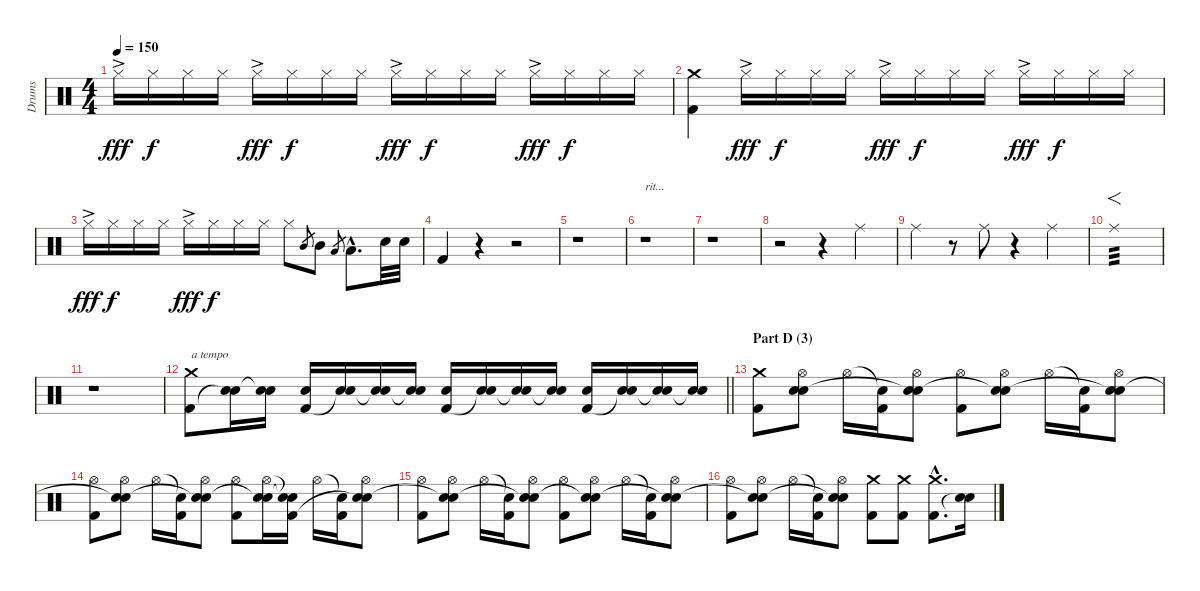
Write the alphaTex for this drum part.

\track ("Drums" "Drums") {instrument percussion}
\staff {score}
\articulation defaults
\ts (4 4)
\tempo 150
\clef neutral
\ks c "Hi-Hat (closed)"{ac}.16{dy fff} "Hi-Hat (closed)".16{dy f} "Hi-Hat (closed)".16 "Hi-Hat (closed)".16 "Hi-Hat (closed)"{ac}.16{dy fff} "Hi-Hat (closed)".16{dy f} "Hi-Hat (closed)".16 "Hi-Hat (closed)".16 "Hi-Hat (closed)"{ac}.16{dy fff} "Hi-Hat (closed)".16{dy f} "Hi-Hat (closed)".16 "Hi-Hat (closed)".16 "Hi-Hat (closed)"{ac}.16{dy fff} "Hi-Hat (closed)".16{dy f} "Hi-Hat (closed)".16 "Hi-Hat (closed)".16
|
("Crash medium (hit)" "Kick (hit) 2").4 "Hi-Hat (closed)"{ac}.16{dy fff} "Hi-Hat (closed)".16{dy f} "Hi-Hat (closed)".16 "Hi-Hat (closed)".16 "Hi-Hat (closed)"{ac}.16{dy fff} "Hi-Hat (closed)".16{dy f} "Hi-Hat (closed)".16 "Hi-Hat (closed)".16 "Hi-Hat (closed)"{ac}.16{dy fff} "Hi-Hat (closed)".16{dy f} "Hi-Hat (closed)".16 "Hi-Hat (closed)".16 |
"Hi-Hat (closed)"{ac}.16{dy fff} "Hi-Hat (closed)".16{dy f} "Hi-Hat (closed)".16 "Hi-Hat (closed)".16 "Hi-Hat (closed)"{ac}.16{dy fff} "Hi-Hat (closed)".16{dy f} "Hi-Hat (closed)".16 "Hi-Hat (closed)".16 "Hi-Hat (closed)".8 "Mid Tom (hit)".8{gr} "Mid Tom (hit)".8 "Low Tom (hit)".8{gr} "Low Tom (hit)"{hac}.8{d} "Electric Snare (hit)".32 "Electric Snare (hit)".32 |
"Kick (hit) 2".4 r.4 r.2 |
r.1 |
r.1{txt "rit..."} |
r.1 |
r.2 r.4 "Ride (middle)".4 |
"Ride (middle)".4 r.8 "Ride (middle)".8 r.4 "Ride (middle)".4 |
"Ride (middle)".1{f tp 3} |
r.1 |
\barLineRight lightlight
("Crash medium (hit)" "Kick (hit) 2").8{txt "a tempo"} ("Electric Snare (hit)" "Snare (hit)"{t}).16 ("Electric Snare (hit)" "Snare (hit)"{t}).16 ("Electric Snare (hit)" "Kick (hit) 2").16 ("Electric Snare (hit)" "Snare (hit)"{t}).16 ("Electric Snare (hit)" "Snare (hit)"{t}).16 ("Electric Snare (hit)" "Snare (hit)"{t}).16 ("Electric Snare (hit)" "Kick (hit) 2").16 ("Electric Snare (hit)" "Snare (hit)"{t}).16 ("Electric Snare (hit)" "Snare (hit)"{t}).16 ("Electric Snare (hit)" "Snare (hit)"{t}).16 ("Electric Snare (hit)" "Kick (hit) 2").16 ("Electric Snare (hit)" "Snare (hit)"{t}).16 ("Electric Snare (hit)" "Snare (hit)"{t}).16 ("Electric Snare (hit)" "Snare (hit)"{t}).16 |
\section ("" "Part D (3)")
("Crash medium (hit)" "Kick (hit) 2").8 ("Hi-Hat (open)" "Electric Snare (hit)" "Snare (hit)").8 "Hi-Hat (open)".16 ("Snare (hit)"{t} "Kick (hit) 2").16 ("Hi-Hat (open)" "Electric Snare (hit)" "Snare (hit)"{t}).8 ("Hi-Hat (open)" "Kick (hit) 2").8 ("Hi-Hat (open)" "Electric Snare (hit)" "Snare (hit)"{t}).8 "Hi-Hat (open)".16 ("Snare (hit)"{t} "Kick (hit) 2").16 ("Hi-Hat (open)" "Electric Snare (hit)" "Snare (hit)"{t}).8 |
("Hi-Hat (open)" "Kick (hit) 2").8 ("Hi-Hat (open)" "Electric Snare (hit)" "Snare (hit)"{t}).8 "Hi-Hat (open)".16 ("Snare (hit)"{t} "Kick (hit) 2").16 ("Hi-Hat (open)" "Electric Snare (hit)" "Snare (hit)"{t}).8 ("Hi-Hat (open)" "Kick (hit) 2").8 ("Hi-Hat (open)" "Electric Snare (hit)" "Snare (hit)"{t}).16 ("Snare (hit)"{t} "Snare (hit)"{t} "Kick (hit) 2").16 "Hi-Hat (open)".16 ("Snare (hit)"{t} "Kick (hit) 2").16 ("Hi-Hat (open)" "Electric Snare (hit)" "Snare (hit)"{t}).8 |
("Hi-Hat (open)" "Kick (hit) 2").8 ("Hi-Hat (open)" "Electric Snare (hit)" "Snare (hit)"{t}).8 "Hi-Hat (open)".16 ("Snare (hit)"{t} "Kick (hit) 2").16 ("Hi-Hat (open)" "Electric Snare (hit)" "Snare (hit)"{t}).8 ("Hi-Hat (open)" "Kick (hit) 2").8 ("Hi-Hat (open)" "Electric Snare (hit)" "Snare (hit)"{t}).8 "Hi-Hat (open)".16 ("Snare (hit)"{t} "Kick (hit) 2").16 ("Hi-Hat (open)" "Electric Snare (hit)" "Snare (hit)"{t}).8 |
("Hi-Hat (open)" "Kick (hit) 2").8 ("Hi-Hat (open)" "Electric Snare (hit)" "Snare (hit)"{t}).8 "Hi-Hat (open)".16 ("Snare (hit)"{t} "Kick (hit) 2").16 ("Hi-Hat (open)" "Electric Snare (hit)" "Snare (hit)"{t}).8 ("Crash medium (hit)" "Kick (hit) 2").8 ("Crash medium (hit)" "Kick (hit) 2").8 ("Crash medium (hit)"{hac} "Kick (hit) 2"{hac}).8{d} ("Electric Snare (hit)" "Snare (hit)"{t}).16
